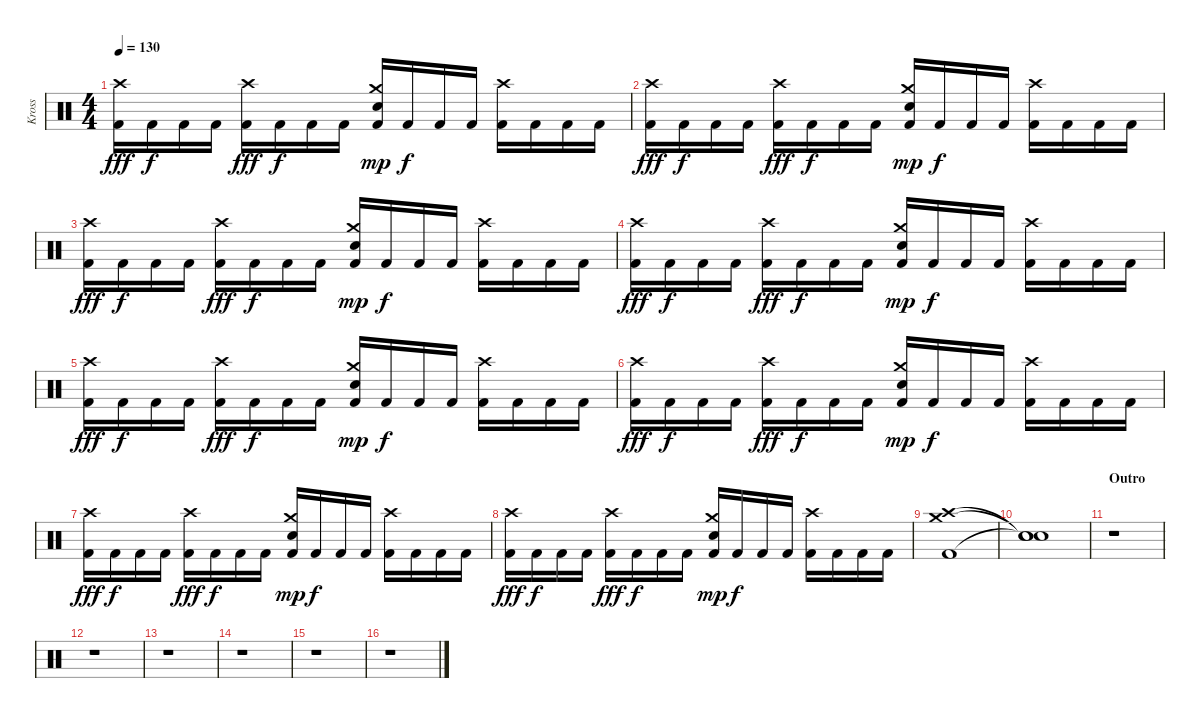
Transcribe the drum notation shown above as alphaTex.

\track ("Kross" "Kross") {instrument percussion}
\staff {score}
\articulation defaults
\ts (4 4)
\tempo 130
\clef neutral
\ks c
("Crash high (hit)" "Kick (hit) 2").16{dy fff} "Kick (hit) 2".16{dy f} "Kick (hit) 2".16 "Kick (hit) 2".16 ("Crash high (hit)" "Kick (hit) 2").16{dy fff} "Kick (hit) 2".16{dy f} "Kick (hit) 2".16 "Kick (hit) 2".16 ("Crash medium (hit)" "Snare (hit) 2" "Kick (hit) 2").16{dy mp} "Kick (hit) 2".16{dy f} "Kick (hit) 2".16 "Kick (hit) 2".16 ("Crash high (hit)" "Kick (hit) 2").16 "Kick (hit) 2".16 "Kick (hit) 2".16 "Kick (hit) 2".16 |
("Crash high (hit)" "Kick (hit) 2").16{dy fff} "Kick (hit) 2".16{dy f} "Kick (hit) 2".16 "Kick (hit) 2".16 ("Crash high (hit)" "Kick (hit) 2").16{dy fff} "Kick (hit) 2".16{dy f} "Kick (hit) 2".16 "Kick (hit) 2".16 ("Crash medium (hit)" "Snare (hit) 2" "Kick (hit) 2").16{dy mp} "Kick (hit) 2".16{dy f} "Kick (hit) 2".16 "Kick (hit) 2".16 ("Crash high (hit)" "Kick (hit) 2").16 "Kick (hit) 2".16 "Kick (hit) 2".16 "Kick (hit) 2".16 |
("Crash high (hit)" "Kick (hit) 2").16{dy fff} "Kick (hit) 2".16{dy f} "Kick (hit) 2".16 "Kick (hit) 2".16 ("Crash high (hit)" "Kick (hit) 2").16{dy fff} "Kick (hit) 2".16{dy f} "Kick (hit) 2".16 "Kick (hit) 2".16 ("Crash medium (hit)" "Snare (hit) 2" "Kick (hit) 2").16{dy mp} "Kick (hit) 2".16{dy f} "Kick (hit) 2".16 "Kick (hit) 2".16 ("Crash high (hit)" "Kick (hit) 2").16 "Kick (hit) 2".16 "Kick (hit) 2".16 "Kick (hit) 2".16 |
("Crash high (hit)" "Kick (hit) 2").16{dy fff} "Kick (hit) 2".16{dy f} "Kick (hit) 2".16 "Kick (hit) 2".16 ("Crash high (hit)" "Kick (hit) 2").16{dy fff} "Kick (hit) 2".16{dy f} "Kick (hit) 2".16 "Kick (hit) 2".16 ("Crash medium (hit)" "Snare (hit) 2" "Kick (hit) 2").16{dy mp} "Kick (hit) 2".16{dy f} "Kick (hit) 2".16 "Kick (hit) 2".16 ("Crash high (hit)" "Kick (hit) 2").16 "Kick (hit) 2".16 "Kick (hit) 2".16 "Kick (hit) 2".16 |
("Crash high (hit)" "Kick (hit) 2").16{dy fff} "Kick (hit) 2".16{dy f} "Kick (hit) 2".16 "Kick (hit) 2".16 ("Crash high (hit)" "Kick (hit) 2").16{dy fff} "Kick (hit) 2".16{dy f} "Kick (hit) 2".16 "Kick (hit) 2".16 ("Crash medium (hit)" "Snare (hit) 2" "Kick (hit) 2").16{dy mp} "Kick (hit) 2".16{dy f} "Kick (hit) 2".16 "Kick (hit) 2".16 ("Crash high (hit)" "Kick (hit) 2").16 "Kick (hit) 2".16 "Kick (hit) 2".16 "Kick (hit) 2".16 |
("Crash high (hit)" "Kick (hit) 2").16{dy fff} "Kick (hit) 2".16{dy f} "Kick (hit) 2".16 "Kick (hit) 2".16 ("Crash high (hit)" "Kick (hit) 2").16{dy fff} "Kick (hit) 2".16{dy f} "Kick (hit) 2".16 "Kick (hit) 2".16 ("Crash medium (hit)" "Snare (hit) 2" "Kick (hit) 2").16{dy mp} "Kick (hit) 2".16{dy f} "Kick (hit) 2".16 "Kick (hit) 2".16 ("Crash high (hit)" "Kick (hit) 2").16 "Kick (hit) 2".16 "Kick (hit) 2".16 "Kick (hit) 2".16 |
("Crash high (hit)" "Kick (hit) 2").16{dy fff} "Kick (hit) 2".16{dy f} "Kick (hit) 2".16 "Kick (hit) 2".16 ("Crash high (hit)" "Kick (hit) 2").16{dy fff} "Kick (hit) 2".16{dy f} "Kick (hit) 2".16 "Kick (hit) 2".16 ("Crash medium (hit)" "Snare (hit) 2" "Kick (hit) 2").16{dy mp} "Kick (hit) 2".16{dy f} "Kick (hit) 2".16 "Kick (hit) 2".16 ("Crash high (hit)" "Kick (hit) 2").16 "Kick (hit) 2".16 "Kick (hit) 2".16 "Kick (hit) 2".16 |
("Crash high (hit)" "Kick (hit) 2").16{dy fff} "Kick (hit) 2".16{dy f} "Kick (hit) 2".16 "Kick (hit) 2".16 ("Crash high (hit)" "Kick (hit) 2").16{dy fff} "Kick (hit) 2".16{dy f} "Kick (hit) 2".16 "Kick (hit) 2".16 ("Crash medium (hit)" "Snare (hit) 2" "Kick (hit) 2").16{dy mp} "Kick (hit) 2".16{dy f} "Kick (hit) 2".16 "Kick (hit) 2".16 ("Crash high (hit)" "Kick (hit) 2").16 "Kick (hit) 2".16 "Kick (hit) 2".16 "Kick (hit) 2".16 |
("Crash high (hit)" "Crash medium (hit)" "Kick (hit) 2").1 |
("Snare (hit)"{t} "Snare (hit)"{t} "Snare (hit)"{t}).1 |
\section ("" "Outro")
r.1 |
r.1 |
r.1 |
r.1 |
r.1 |
r.1
